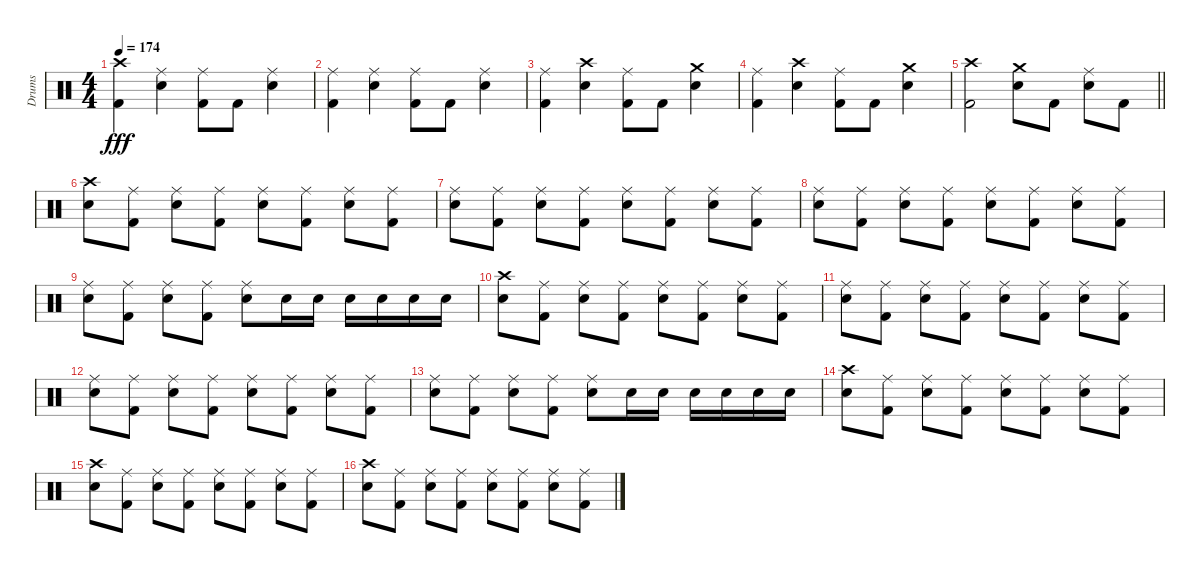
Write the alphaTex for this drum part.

\track ("Drums" "Drums") {instrument percussion}
\staff {score}
\articulation defaults
\ts (4 4)
\tempo 174
\clef neutral
\ks c
("Crash high (hit)" "Kick (hit) 2").4{dy fff} ("Ride (middle)" "Electric Snare (hit)").4 ("Ride (middle)" "Kick (hit) 2").8 "Kick (hit) 2".8 ("Ride (middle)" "Electric Snare (hit)").4 |
("Ride (middle)" "Kick (hit) 2").4 ("Ride (middle)" "Electric Snare (hit)").4 ("Ride (middle)" "Kick (hit) 2").8 "Kick (hit) 2".8 ("Ride (middle)" "Electric Snare (hit)").4 |
("Ride (middle)" "Kick (hit) 2").4 ("Crash high (hit)" "Electric Snare (hit)").4 ("Ride (middle)" "Kick (hit) 2").8 "Kick (hit) 2".8 ("Crash medium (hit)" "Electric Snare (hit)").4 |
("Ride (middle)" "Kick (hit) 2").4 ("Crash high (hit)" "Electric Snare (hit)").4 ("Ride (middle)" "Kick (hit) 2").8 "Kick (hit) 2".8 ("Crash medium (hit)" "Electric Snare (hit)").4 |
\barLineRight lightlight
("Crash high (hit)" "Kick (hit) 2").2 ("Crash medium (hit)" "Electric Snare (hit)").8 "Kick (hit) 2".8 ("Ride (middle)" "Electric Snare (hit)").8 "Kick (hit) 2".8 |
("Crash high (hit)" "Electric Snare (hit)").8 ("Ride (middle)" "Kick (hit) 2").8 ("Ride (middle)" "Electric Snare (hit)").8 ("Ride (middle)" "Kick (hit) 2").8 ("Ride (middle)" "Electric Snare (hit)").8 ("Ride (middle)" "Kick (hit) 2").8 ("Ride (middle)" "Electric Snare (hit)").8 ("Ride (middle)" "Kick (hit) 2").8 |
("Ride (middle)" "Electric Snare (hit)").8 ("Ride (middle)" "Kick (hit) 2").8 ("Ride (middle)" "Electric Snare (hit)").8 ("Ride (middle)" "Kick (hit) 2").8 ("Ride (middle)" "Electric Snare (hit)").8 ("Ride (middle)" "Kick (hit) 2").8 ("Ride (middle)" "Electric Snare (hit)").8 ("Ride (middle)" "Kick (hit) 2").8 |
("Ride (middle)" "Electric Snare (hit)").8 ("Ride (middle)" "Kick (hit) 2").8 ("Ride (middle)" "Electric Snare (hit)").8 ("Ride (middle)" "Kick (hit) 2").8 ("Ride (middle)" "Electric Snare (hit)").8 ("Ride (middle)" "Kick (hit) 2").8 ("Ride (middle)" "Electric Snare (hit)").8 ("Ride (middle)" "Kick (hit) 2").8 |
("Ride (middle)" "Electric Snare (hit)").8 ("Ride (middle)" "Kick (hit) 2").8 ("Ride (middle)" "Electric Snare (hit)").8 ("Ride (middle)" "Kick (hit) 2").8 ("Ride (middle)" "Electric Snare (hit)").8 "Electric Snare (hit)".16 "Electric Snare (hit)".16 "Electric Snare (hit)".16 "Electric Snare (hit)".16 "Electric Snare (hit)".16 "Electric Snare (hit)".16 |
("Crash high (hit)" "Electric Snare (hit)").8 ("Ride (middle)" "Kick (hit) 2").8 ("Ride (middle)" "Electric Snare (hit)").8 ("Ride (middle)" "Kick (hit) 2").8 ("Ride (middle)" "Electric Snare (hit)").8 ("Ride (middle)" "Kick (hit) 2").8 ("Ride (middle)" "Electric Snare (hit)").8 ("Ride (middle)" "Kick (hit) 2").8 |
("Ride (middle)" "Electric Snare (hit)").8 ("Ride (middle)" "Kick (hit) 2").8 ("Ride (middle)" "Electric Snare (hit)").8 ("Ride (middle)" "Kick (hit) 2").8 ("Ride (middle)" "Electric Snare (hit)").8 ("Ride (middle)" "Kick (hit) 2").8 ("Ride (middle)" "Electric Snare (hit)").8 ("Ride (middle)" "Kick (hit) 2").8 |
("Ride (middle)" "Electric Snare (hit)").8 ("Ride (middle)" "Kick (hit) 2").8 ("Ride (middle)" "Electric Snare (hit)").8 ("Ride (middle)" "Kick (hit) 2").8 ("Ride (middle)" "Electric Snare (hit)").8 ("Ride (middle)" "Kick (hit) 2").8 ("Ride (middle)" "Electric Snare (hit)").8 ("Ride (middle)" "Kick (hit) 2").8 |
("Ride (middle)" "Electric Snare (hit)").8 ("Ride (middle)" "Kick (hit) 2").8 ("Ride (middle)" "Electric Snare (hit)").8 ("Ride (middle)" "Kick (hit) 2").8 ("Ride (middle)" "Electric Snare (hit)").8 "Electric Snare (hit)".16 "Electric Snare (hit)".16 "Electric Snare (hit)".16 "Electric Snare (hit)".16 "Electric Snare (hit)".16 "Electric Snare (hit)".16 |
("Crash high (hit)" "Electric Snare (hit)").8 ("Ride (middle)" "Kick (hit) 2").8 ("Ride (middle)" "Electric Snare (hit)").8 ("Ride (middle)" "Kick (hit) 2").8 ("Ride (middle)" "Electric Snare (hit)").8 ("Ride (middle)" "Kick (hit) 2").8 ("Ride (middle)" "Electric Snare (hit)").8 ("Ride (middle)" "Kick (hit) 2").8 |
("Crash high (hit)" "Electric Snare (hit)").8 ("Ride (middle)" "Kick (hit) 2").8 ("Ride (middle)" "Electric Snare (hit)").8 ("Ride (middle)" "Kick (hit) 2").8 ("Ride (middle)" "Electric Snare (hit)").8 ("Ride (middle)" "Kick (hit) 2").8 ("Ride (middle)" "Electric Snare (hit)").8 ("Ride (middle)" "Kick (hit) 2").8 |
("Crash high (hit)" "Electric Snare (hit)").8 ("Ride (middle)" "Kick (hit) 2").8 ("Ride (middle)" "Electric Snare (hit)").8 ("Ride (middle)" "Kick (hit) 2").8 ("Ride (middle)" "Electric Snare (hit)").8 ("Ride (middle)" "Kick (hit) 2").8 ("Ride (middle)" "Electric Snare (hit)").8 ("Ride (middle)" "Kick (hit) 2").8
